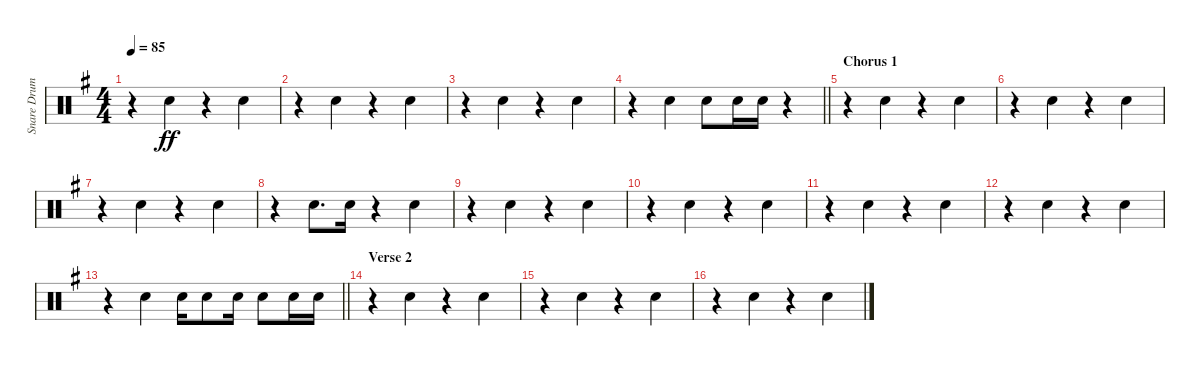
\track ("Snare Drum" "Snare Drum") {instrument percussion}
\staff {score}
\articulation defaults
\ts (4 4)
\tempo 85
\clef neutral
\ks g
r.4{dy ff beam merge} "Electric Snare (hit)".4 r.4{beam merge} "Electric Snare (hit)".4 |
r.4{beam merge} "Electric Snare (hit)".4 r.4{beam merge} "Electric Snare (hit)".4 |
r.4{beam merge} "Electric Snare (hit)".4 r.4{beam merge} "Electric Snare (hit)".4 |
\barLineRight lightlight
r.4{beam merge} "Electric Snare (hit)".4 "Electric Snare (hit)".8 "Electric Snare (hit)".16 "Electric Snare (hit)".16 r.4 |
\section ("" "Chorus 1")
r.4{beam merge} "Electric Snare (hit)".4 r.4{beam merge} "Electric Snare (hit)".4 |
r.4{beam merge} "Electric Snare (hit)".4 r.4{beam merge} "Electric Snare (hit)".4 |
r.4{beam merge} "Electric Snare (hit)".4 r.4{beam merge} "Electric Snare (hit)".4 |
r.4 "Electric Snare (hit)".8{d} "Electric Snare (hit)".16 r.4{beam merge} "Electric Snare (hit)".4 |
r.4{beam merge} "Electric Snare (hit)".4 r.4{beam merge} "Electric Snare (hit)".4 |
r.4{beam merge} "Electric Snare (hit)".4 r.4{beam merge} "Electric Snare (hit)".4 |
r.4{beam merge} "Electric Snare (hit)".4 r.4{beam merge} "Electric Snare (hit)".4 |
r.4{beam merge} "Electric Snare (hit)".4 r.4{beam merge} "Electric Snare (hit)".4 |
\barLineRight lightlight
r.4{beam merge} "Electric Snare (hit)".4 "Electric Snare (hit)".16 "Electric Snare (hit)".8 "Electric Snare (hit)".16 "Electric Snare (hit)".8 "Electric Snare (hit)".16 "Electric Snare (hit)".16 |
\section ("" "Verse 2")
r.4{beam merge} "Electric Snare (hit)".4 r.4{beam merge} "Electric Snare (hit)".4 |
r.4{beam merge} "Electric Snare (hit)".4 r.4{beam merge} "Electric Snare (hit)".4 |
r.4{beam merge} "Electric Snare (hit)".4 r.4{beam merge} "Electric Snare (hit)".4
